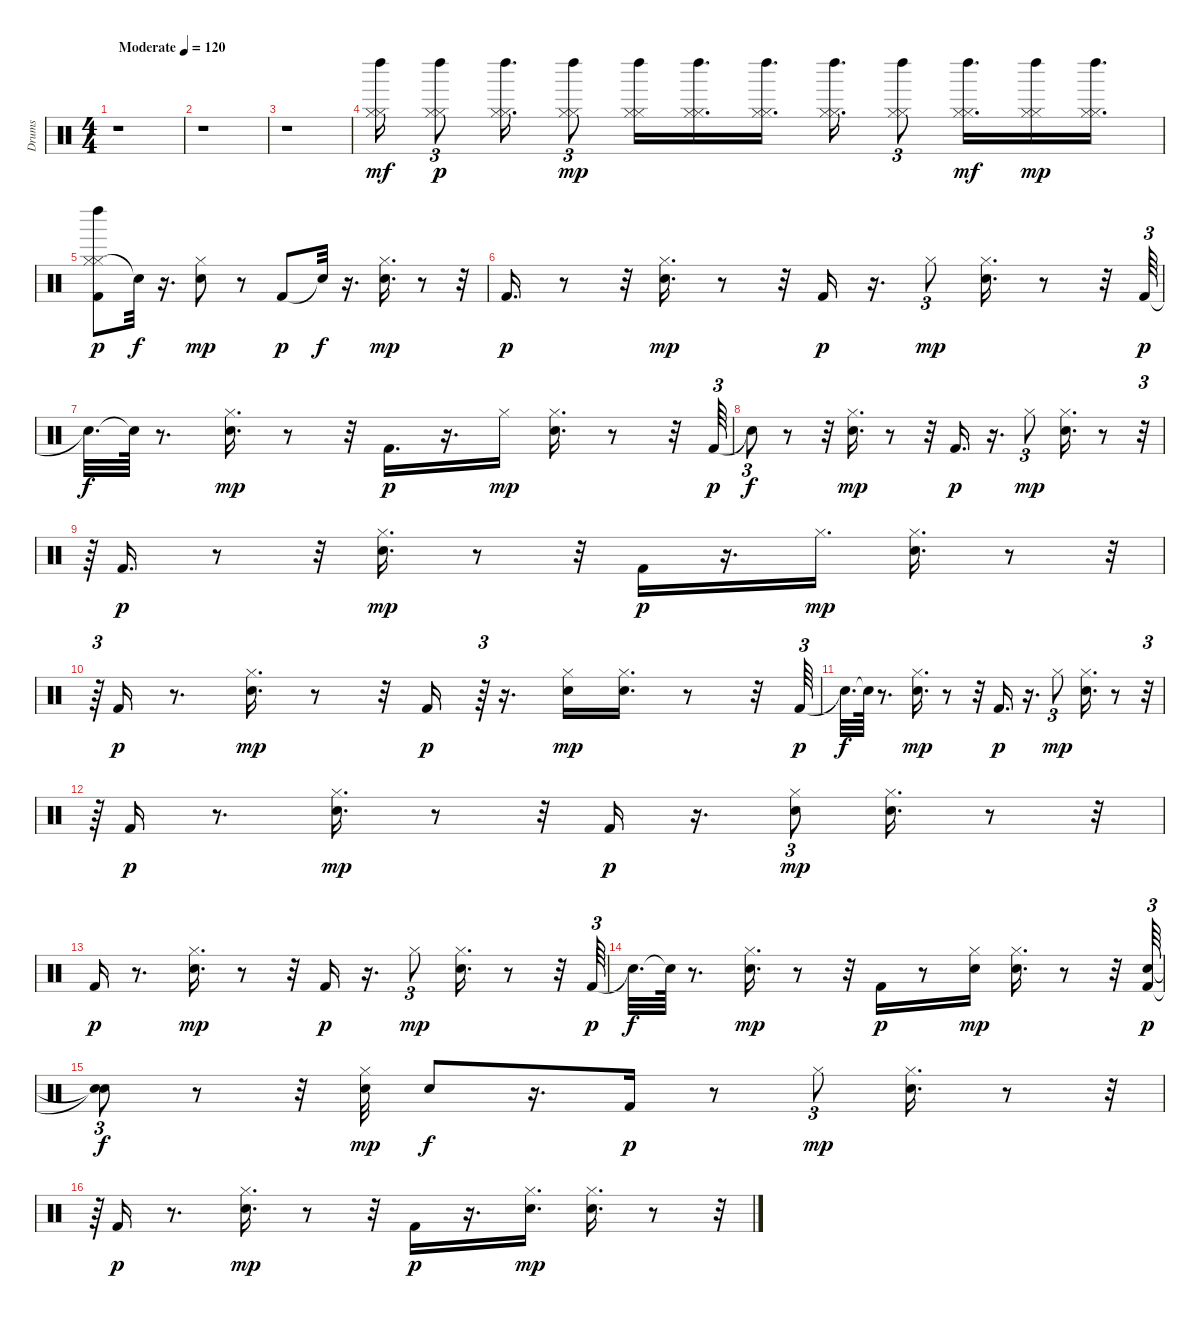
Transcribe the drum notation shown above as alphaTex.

\track ("Drums" "Drums") {instrument percussion}
\staff {score}
\articulation defaults
\ts (4 4)
\tempo (120 "Moderate")
\clef neutral
\ks c
r.1{dy mf} |
r.1 |
r.1 |
("Hi-Hat (closed)" "Hi-Hat (closed)" "Left Maraca (hit)").16 ("Hi-Hat (closed)" "Hi-Hat (closed)" "Left Maraca (hit)").8{tu (3 2) dy p} ("Hi-Hat (closed)" "Hi-Hat (closed)" "Left Maraca (hit)").16{d} ("Hi-Hat (closed)" "Hi-Hat (closed)" "Left Maraca (hit)").8{tu (3 2) dy mp} ("Hi-Hat (closed)" "Hi-Hat (closed)" "Left Maraca (hit)").16 ("Hi-Hat (closed)" "Hi-Hat (closed)" "Left Maraca (hit)").16{d} ("Hi-Hat (closed)" "Hi-Hat (closed)" "Left Maraca (hit)").16{d} ("Hi-Hat (closed)" "Hi-Hat (closed)" "Left Maraca (hit)").16{d} ("Hi-Hat (closed)" "Hi-Hat (closed)" "Left Maraca (hit)").8{tu (3 2)} ("Hi-Hat (closed)" "Hi-Hat (closed)" "Left Maraca (hit)").16{d dy mf} ("Hi-Hat (closed)" "Hi-Hat (closed)" "Left Maraca (hit)").16{dy mp} ("Hi-Hat (closed)" "Hi-Hat (closed)" "Left Maraca (hit)").16{d} |
("Hi-Hat (closed)" "Hi-Hat (closed)" "Left Maraca (hit)" "Kick (hit) 2").8{dy p} "Snare (hit)"{t}.32{dy f} r.16{d} ("Snare (hit) 2" "Hi-Hat (closed)").8{dy mp} r.8 "Kick (hit) 2".8{dy p} "Snare (hit)"{t}.32{dy f} r.16{d} ("Snare (hit) 2" "Hi-Hat (closed)").16{d dy mp} r.8 r.32 |
"Kick (hit) 2".16{d dy p} r.8 r.32 ("Hi-Hat (closed)" "Snare (hit) 2").16{d dy mp} r.8 r.32 "Kick (hit) 2".16{dy p} r.16{d} "Hi-Hat (closed)".8{tu (3 2) dy mp} ("Hi-Hat (closed)" "Snare (hit) 2").16{d} r.8 r.32 "Kick (hit) 2".64{tu (3 2) dy p} |
"Snare (hit)"{t}.32{d dy f} "Snare (hit)"{t}.64 r.8{d} ("Hi-Hat (closed)" "Snare (hit) 2").16{d dy mp} r.8 r.32 "Kick (hit) 2".16{d dy p} r.16{d} "Hi-Hat (closed)".16{dy mp} ("Snare (hit) 2" "Hi-Hat (closed)").16{d} r.8 r.32 "Kick (hit) 2".64{tu (3 2) dy p} |
"Snare (hit)"{t}.8{tu (3 2) dy f} r.8 r.32 ("Snare (hit) 2" "Hi-Hat (closed)").16{d dy mp} r.8 r.32 "Kick (hit) 2".16{d dy p} r.16{d} "Hi-Hat (closed)".8{tu (3 2) dy mp} ("Hi-Hat (closed)" "Snare (hit) 2").16{d} r.8 r.32{tu (3 2)} |
r.64{tu (3 2)} "Kick (hit) 2".16{d dy p} r.8 r.32 ("Hi-Hat (closed)" "Snare (hit) 2").16{d dy mp} r.8 r.32 "Kick (hit) 2".16{dy p} r.16{d} "Hi-Hat (closed)".16{d dy mp} ("Snare (hit) 2" "Hi-Hat (closed)").16{d} r.8 r.32{tu (3 2)} |
r.64{tu (3 2)} "Kick (hit) 2".16{dy p} r.8{d} ("Hi-Hat (closed)" "Snare (hit) 2").16{d dy mp} r.8 r.32 "Kick (hit) 2".16{dy p} r.64{tu (3 2)} r.16{d} ("Snare (hit) 2" "Hi-Hat (closed)").16{dy mp} ("Snare (hit) 2" "Hi-Hat (closed)").16{d} r.8 r.32 "Kick (hit) 2".64{tu (3 2) dy p} |
"Snare (hit)"{t}.32{d dy f} "Snare (hit)"{t}.64 r.8{d} ("Hi-Hat (closed)" "Snare (hit) 2").16{d dy mp} r.8 r.32 "Kick (hit) 2".16{d dy p} r.16{d} "Hi-Hat (closed)".8{tu (3 2) dy mp} ("Hi-Hat (closed)" "Snare (hit) 2").16{d} r.8 r.32{tu (3 2)} |
r.64{tu (3 2)} "Kick (hit) 2".16{dy p} r.8{d} ("Hi-Hat (closed)" "Snare (hit) 2").16{d dy mp} r.8 r.32 "Kick (hit) 2".16{dy p} r.16{d} ("Snare (hit) 2" "Hi-Hat (closed)").8{tu (3 2) dy mp} ("Snare (hit) 2" "Hi-Hat (closed)").16{d} r.8 r.32 |
"Kick (hit) 2".16{dy p} r.8{d} ("Hi-Hat (closed)" "Snare (hit) 2").16{d dy mp} r.8 r.32 "Kick (hit) 2".16{dy p} r.16{d} "Hi-Hat (closed)".8{tu (3 2) dy mp} ("Hi-Hat (closed)" "Snare (hit) 2").16{d} r.8 r.32 "Kick (hit) 2".64{tu (3 2) dy p} |
"Snare (hit)"{t}.32{d dy f} "Snare (hit)"{t}.64 r.8{d} ("Hi-Hat (closed)" "Snare (hit) 2").16{d dy mp} r.8 r.32 "Kick (hit) 2".16{dy p} r.8 ("Snare (hit) 2" "Hi-Hat (closed)").16{dy mp} ("Snare (hit) 2" "Hi-Hat (closed)").16{d} r.8 r.32 ("Kick (hit) 2" "Hand Clap (hit)").64{tu (3 2) dy p} |
("Snare (hit)"{t} "Snare (hit)"{t}).8{tu (3 2) dy f} r.8 r.32 ("Hi-Hat (closed)" "Snare (hit) 2").32{dy mp} "Hand Clap (hit)".8{dy f} r.16{d} "Kick (hit) 2".16{dy p} r.8 "Hi-Hat (closed)".8{tu (3 2) dy mp} ("Hi-Hat (closed)" "Snare (hit) 2").16{d} r.8 r.32{tu (3 2)} |
r.64{tu (3 2)} "Kick (hit) 2".16{dy p} r.8{d} ("Snare (hit) 2" "Hi-Hat (closed)").16{d dy mp} r.8 r.32 "Kick (hit) 2".16{dy p} r.16{d} ("Snare (hit) 2" "Hi-Hat (closed)").16{d dy mp} ("Snare (hit) 2" "Hi-Hat (closed)").16{d} r.8 r.32{tu (3 2)}
